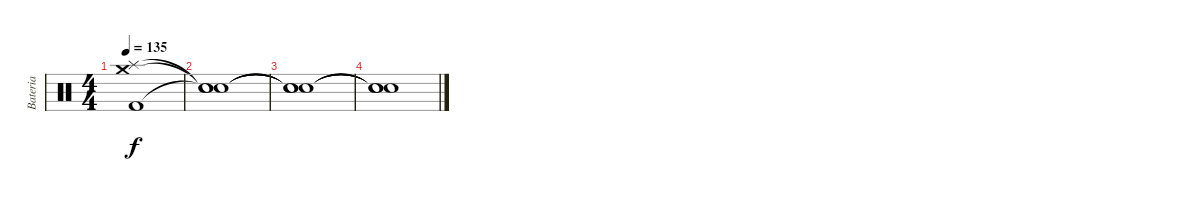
\track ("Bateria" "Bateria") {instrument percussion}
\staff {score}
\articulation defaults
\ts (4 4)
\tempo 135
\clef neutral
\ks c
("Kick (hit) 2" "Crash medium (hit)" "Splash (hit)").1{dy f} |
("Snare (hit)"{t} "Snare (hit)"{t} "Snare (hit)"{t}).1 |
("Snare (hit)"{t} "Snare (hit)"{t} "Snare (hit)"{t}).1 |
("Snare (hit)"{t} "Snare (hit)"{t} "Snare (hit)"{t}).1
